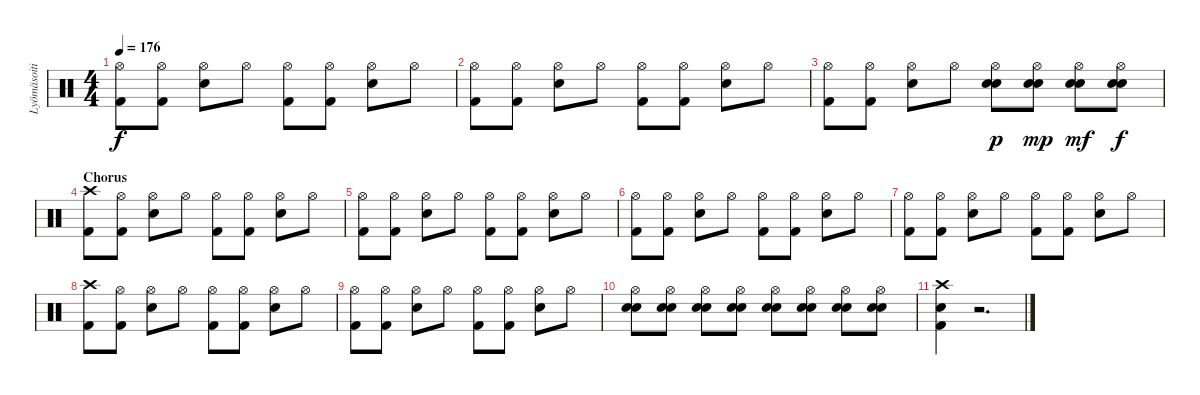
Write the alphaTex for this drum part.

\track ("Lyömäsoitin" "Lyömäsoiti") {instrument percussion}
\staff {score}
\articulation defaults
\ts (4 4)
\tempo 176
\clef neutral
\ks c
("Hi-Hat (open)" "Kick (hit) 2").8{dy f} ("Hi-Hat (open)" "Kick (hit) 2").8 ("Hi-Hat (open)" "Electric Snare (hit)").8 "Hi-Hat (open)".8 ("Hi-Hat (open)" "Kick (hit) 2").8 ("Hi-Hat (open)" "Kick (hit) 2").8 ("Hi-Hat (open)" "Electric Snare (hit)").8 "Hi-Hat (open)".8 |
("Hi-Hat (open)" "Kick (hit) 2").8 ("Hi-Hat (open)" "Kick (hit) 2").8 ("Hi-Hat (open)" "Electric Snare (hit)").8 "Hi-Hat (open)".8 ("Hi-Hat (open)" "Kick (hit) 2").8 ("Hi-Hat (open)" "Kick (hit) 2").8 ("Hi-Hat (open)" "Electric Snare (hit)").8 "Hi-Hat (open)".8 |
("Hi-Hat (open)" "Kick (hit) 2").8 ("Hi-Hat (open)" "Kick (hit) 2").8 ("Hi-Hat (open)" "Electric Snare (hit)").8 "Hi-Hat (open)".8 ("Hi-Hat (open)" "Snare (hit) 2" "Electric Snare (hit)").8{dy p} ("Hi-Hat (open)" "Snare (hit) 2" "Electric Snare (hit)").8{dy mp} ("Hi-Hat (open)" "Snare (hit) 2" "Electric Snare (hit)").8{dy mf} ("Hi-Hat (open)" "Snare (hit) 2" "Electric Snare (hit)").8{dy f} |
\section ("" "Chorus")
("Crash high (hit)" "Kick (hit) 2").8 ("Hi-Hat (open)" "Kick (hit) 2").8 ("Hi-Hat (open)" "Electric Snare (hit)").8 "Hi-Hat (open)".8 ("Hi-Hat (open)" "Kick (hit) 2").8 ("Hi-Hat (open)" "Kick (hit) 2").8 ("Hi-Hat (open)" "Electric Snare (hit)").8 "Hi-Hat (open)".8 |
("Hi-Hat (open)" "Kick (hit) 2").8 ("Hi-Hat (open)" "Kick (hit) 2").8 ("Hi-Hat (open)" "Electric Snare (hit)").8 "Hi-Hat (open)".8 ("Hi-Hat (open)" "Kick (hit) 2").8 ("Hi-Hat (open)" "Kick (hit) 2").8 ("Hi-Hat (open)" "Electric Snare (hit)").8 "Hi-Hat (open)".8 |
("Hi-Hat (open)" "Kick (hit) 2").8 ("Hi-Hat (open)" "Kick (hit) 2").8 ("Hi-Hat (open)" "Electric Snare (hit)").8 "Hi-Hat (open)".8 ("Hi-Hat (open)" "Kick (hit) 2").8 ("Hi-Hat (open)" "Kick (hit) 2").8 ("Hi-Hat (open)" "Electric Snare (hit)").8 "Hi-Hat (open)".8 |
("Hi-Hat (open)" "Kick (hit) 2").8 ("Hi-Hat (open)" "Kick (hit) 2").8 ("Hi-Hat (open)" "Electric Snare (hit)").8 "Hi-Hat (open)".8 ("Hi-Hat (open)" "Kick (hit) 2").8 ("Hi-Hat (open)" "Kick (hit) 2").8 ("Hi-Hat (open)" "Electric Snare (hit)").8 "Hi-Hat (open)".8 |
("Crash high (hit)" "Kick (hit) 2").8 ("Hi-Hat (open)" "Kick (hit) 2").8 ("Hi-Hat (open)" "Electric Snare (hit)").8 "Hi-Hat (open)".8 ("Hi-Hat (open)" "Kick (hit) 2").8 ("Hi-Hat (open)" "Kick (hit) 2").8 ("Hi-Hat (open)" "Electric Snare (hit)").8 "Hi-Hat (open)".8 |
("Hi-Hat (open)" "Kick (hit) 2").8 ("Hi-Hat (open)" "Kick (hit) 2").8 ("Hi-Hat (open)" "Electric Snare (hit)").8 "Hi-Hat (open)".8 ("Hi-Hat (open)" "Kick (hit) 2").8 ("Hi-Hat (open)" "Kick (hit) 2").8 ("Hi-Hat (open)" "Electric Snare (hit)").8 "Hi-Hat (open)".8 |
("Hi-Hat (open)" "Snare (hit) 2" "Electric Snare (hit)").8 ("Hi-Hat (open)" "Snare (hit) 2" "Electric Snare (hit)").8 ("Hi-Hat (open)" "Snare (hit) 2" "Electric Snare (hit)").8 ("Hi-Hat (open)" "Snare (hit) 2" "Electric Snare (hit)").8 ("Hi-Hat (open)" "Snare (hit) 2" "Electric Snare (hit)").8 ("Hi-Hat (open)" "Snare (hit) 2" "Electric Snare (hit)").8 ("Hi-Hat (open)" "Snare (hit) 2" "Electric Snare (hit)").8 ("Hi-Hat (open)" "Snare (hit) 2" "Electric Snare (hit)").8 |
("Crash high (hit)" "Electric Snare (hit)" "Kick (hit) 2").4 r.2{d}
